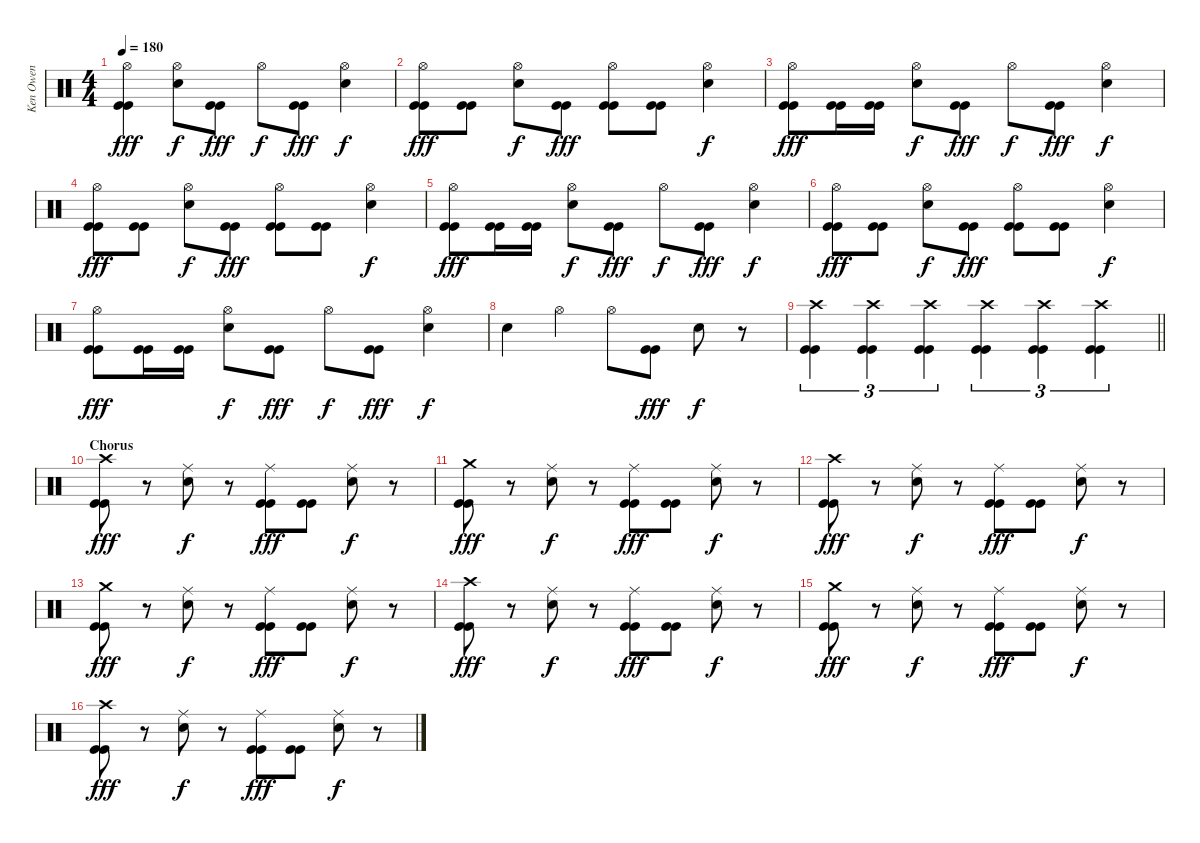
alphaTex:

\track ("Ken Owen" "Ken Owen") {instrument percussion}
\staff {score}
\articulation defaults
\ts (4 4)
\tempo 180
\clef neutral
\ks c
("Hi-Hat (open)" "Kick (hit)" "Kick (hit)").4{dy fff} ("Hi-Hat (open)" "Snare (hit) 2").8{dy f} ("Kick (hit)" "Kick (hit)").8{dy fff} "Hi-Hat (open)".8{dy f} ("Kick (hit)" "Kick (hit)").8{dy fff} ("Hi-Hat (open)" "Snare (hit) 2").4{dy f} |
("Hi-Hat (open)" "Kick (hit)" "Kick (hit)").8{dy fff} ("Kick (hit)" "Kick (hit)").8 ("Hi-Hat (open)" "Snare (hit) 2").8{dy f} ("Kick (hit)" "Kick (hit)").8{dy fff} ("Hi-Hat (open)" "Kick (hit)" "Kick (hit)").8 ("Kick (hit)" "Kick (hit)").8 ("Hi-Hat (open)" "Snare (hit) 2").4{dy f} |
("Hi-Hat (open)" "Kick (hit)" "Kick (hit)").8{dy fff} ("Kick (hit)" "Kick (hit)").16 ("Kick (hit)" "Kick (hit)").16 ("Hi-Hat (open)" "Snare (hit) 2").8{dy f} ("Kick (hit)" "Kick (hit)").8{dy fff} "Hi-Hat (open)".8{dy f} ("Kick (hit)" "Kick (hit)").8{dy fff} ("Hi-Hat (open)" "Snare (hit) 2").4{dy f} |
("Hi-Hat (open)" "Kick (hit)" "Kick (hit)").8{dy fff} ("Kick (hit)" "Kick (hit)").8 ("Hi-Hat (open)" "Snare (hit) 2").8{dy f} ("Kick (hit)" "Kick (hit)").8{dy fff} ("Hi-Hat (open)" "Kick (hit)" "Kick (hit)").8 ("Kick (hit)" "Kick (hit)").8 ("Hi-Hat (open)" "Snare (hit) 2").4{dy f} |
("Hi-Hat (open)" "Kick (hit)" "Kick (hit)").8{dy fff} ("Kick (hit)" "Kick (hit)").16 ("Kick (hit)" "Kick (hit)").16 ("Hi-Hat (open)" "Snare (hit) 2").8{dy f} ("Kick (hit)" "Kick (hit)").8{dy fff} "Hi-Hat (open)".8{dy f} ("Kick (hit)" "Kick (hit)").8{dy fff} ("Hi-Hat (open)" "Snare (hit) 2").4{dy f} |
("Hi-Hat (open)" "Kick (hit)" "Kick (hit)").8{dy fff} ("Kick (hit)" "Kick (hit)").8 ("Hi-Hat (open)" "Snare (hit) 2").8{dy f} ("Kick (hit)" "Kick (hit)").8{dy fff} ("Hi-Hat (open)" "Kick (hit)" "Kick (hit)").8 ("Kick (hit)" "Kick (hit)").8 ("Hi-Hat (open)" "Snare (hit) 2").4{dy f} |
("Hi-Hat (open)" "Kick (hit)" "Kick (hit)").8{dy fff} ("Kick (hit)" "Kick (hit)").16 ("Kick (hit)" "Kick (hit)").16 ("Hi-Hat (open)" "Snare (hit) 2").8{dy f} ("Kick (hit)" "Kick (hit)").8{dy fff} "Hi-Hat (open)".8{dy f} ("Kick (hit)" "Kick (hit)").8{dy fff} ("Hi-Hat (open)" "Snare (hit) 2").4{dy f} |
"Snare (hit) 2".4 "Hi-Hat (open)".4 "Hi-Hat (open)".8 ("Kick (hit)" "Kick (hit)").8{dy fff} "Snare (hit) 2".8{dy f} r.8 |
\barLineRight lightlight
("Crash high (hit)" "Kick (hit)" "Kick (hit)").4{tu (3 2)} ("Crash high (hit)" "Kick (hit)" "Kick (hit)").4{tu (3 2)} ("Crash high (hit)" "Kick (hit)" "Kick (hit)").4{tu (3 2)} ("Crash high (hit)" "Kick (hit)" "Kick (hit)").4{tu (3 2)} ("Crash high (hit)" "Kick (hit)" "Kick (hit)").4{tu (3 2)} ("Crash high (hit)" "Kick (hit)" "Kick (hit)").4{tu (3 2)} |
\section ("" "Chorus")
("Crash high (hit)" "Kick (hit)" "Kick (hit)").8{dy fff} r.8 ("Ride (middle)" "Snare (hit) 2").8{dy f} r.8 ("Ride (middle)" "Kick (hit)" "Kick (hit)").8{dy fff} ("Kick (hit)" "Kick (hit)").8 ("Ride (middle)" "Snare (hit) 2").8{dy f} r.8 |
("Crash medium (hit)" "Kick (hit)" "Kick (hit)").8{dy fff} r.8 ("Ride (middle)" "Snare (hit) 2").8{dy f} r.8 ("Ride (middle)" "Kick (hit)" "Kick (hit)").8{dy fff} ("Kick (hit)" "Kick (hit)").8 ("Ride (middle)" "Snare (hit) 2").8{dy f} r.8 |
("Crash high (hit)" "Kick (hit)" "Kick (hit)").8{dy fff} r.8 ("Ride (middle)" "Snare (hit) 2").8{dy f} r.8 ("Ride (middle)" "Kick (hit)" "Kick (hit)").8{dy fff} ("Kick (hit)" "Kick (hit)").8 ("Ride (middle)" "Snare (hit) 2").8{dy f} r.8 |
("Crash medium (hit)" "Kick (hit)" "Kick (hit)").8{dy fff} r.8 ("Ride (middle)" "Snare (hit) 2").8{dy f} r.8 ("Ride (middle)" "Kick (hit)" "Kick (hit)").8{dy fff} ("Kick (hit)" "Kick (hit)").8 ("Ride (middle)" "Snare (hit) 2").8{dy f} r.8 |
("Crash high (hit)" "Kick (hit)" "Kick (hit)").8{dy fff} r.8 ("Ride (middle)" "Snare (hit) 2").8{dy f} r.8 ("Ride (middle)" "Kick (hit)" "Kick (hit)").8{dy fff} ("Kick (hit)" "Kick (hit)").8 ("Ride (middle)" "Snare (hit) 2").8{dy f} r.8 |
("Crash medium (hit)" "Kick (hit)" "Kick (hit)").8{dy fff} r.8 ("Ride (middle)" "Snare (hit) 2").8{dy f} r.8 ("Ride (middle)" "Kick (hit)" "Kick (hit)").8{dy fff} ("Kick (hit)" "Kick (hit)").8 ("Ride (middle)" "Snare (hit) 2").8{dy f} r.8 |
("Crash high (hit)" "Kick (hit)" "Kick (hit)").8{dy fff} r.8 ("Ride (middle)" "Snare (hit) 2").8{dy f} r.8 ("Ride (middle)" "Kick (hit)" "Kick (hit)").8{dy fff} ("Kick (hit)" "Kick (hit)").8 ("Ride (middle)" "Snare (hit) 2").8{dy f} r.8
